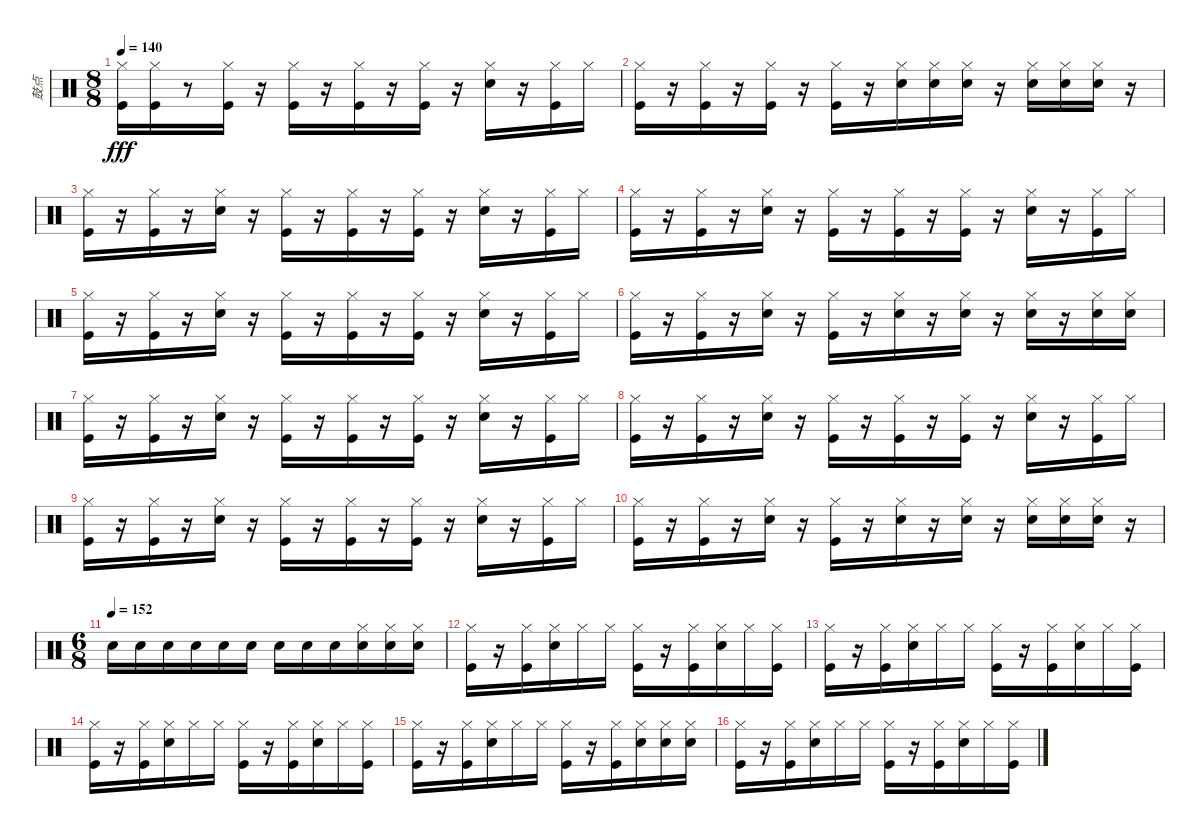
\track ("鼓点" "鼓点") {instrument percussion}
\staff {score}
\articulation defaults
\ts (8 8)
\tempo 140
\clef neutral
\ks c
("Kick (hit)" "Hi-Hat (closed)").16{dy fff} ("Kick (hit)" "Hi-Hat (closed)").16 r.8 ("Kick (hit)" "Hi-Hat (closed)").16 r.16 ("Kick (hit)" "Hi-Hat (closed)").16 r.16 ("Kick (hit)" "Hi-Hat (closed)").16 r.16 ("Kick (hit)" "Hi-Hat (closed)").16 r.16 ("Snare (hit) 2" "Hi-Hat (closed)").16 r.16 ("Kick (hit)" "Hi-Hat (closed)").16 "Hi-Hat (closed)".16 |
("Kick (hit)" "Hi-Hat (closed)").16 r.16 ("Kick (hit)" "Hi-Hat (closed)").16 r.16 ("Kick (hit)" "Hi-Hat (closed)").16 r.16 ("Kick (hit)" "Hi-Hat (closed)").16 r.16 ("Snare (hit) 2" "Hi-Hat (closed)").16 ("Snare (hit) 2" "Hi-Hat (closed)").16 ("Snare (hit) 2" "Hi-Hat (closed)").16 r.16 ("Snare (hit) 2" "Hi-Hat (closed)").16 ("Snare (hit) 2" "Hi-Hat (closed)").16 ("Snare (hit) 2" "Hi-Hat (closed)").16 r.16 |
("Kick (hit)" "Hi-Hat (closed)").16 r.16 ("Kick (hit)" "Hi-Hat (closed)").16 r.16 ("Snare (hit) 2" "Hi-Hat (closed)").16 r.16 ("Kick (hit)" "Hi-Hat (closed)").16 r.16 ("Kick (hit)" "Hi-Hat (closed)").16 r.16 ("Kick (hit)" "Hi-Hat (closed)").16 r.16 ("Snare (hit) 2" "Hi-Hat (closed)").16 r.16 ("Kick (hit)" "Hi-Hat (closed)").16 "Hi-Hat (closed)".16 |
("Kick (hit)" "Hi-Hat (closed)").16 r.16 ("Kick (hit)" "Hi-Hat (closed)").16 r.16 ("Snare (hit) 2" "Hi-Hat (closed)").16 r.16 ("Kick (hit)" "Hi-Hat (closed)").16 r.16 ("Kick (hit)" "Hi-Hat (closed)").16 r.16 ("Kick (hit)" "Hi-Hat (closed)").16 r.16 ("Snare (hit) 2" "Hi-Hat (closed)").16 r.16 ("Kick (hit)" "Hi-Hat (closed)").16 "Hi-Hat (closed)".16 |
("Kick (hit)" "Hi-Hat (closed)").16 r.16 ("Kick (hit)" "Hi-Hat (closed)").16 r.16 ("Snare (hit) 2" "Hi-Hat (closed)").16 r.16 ("Kick (hit)" "Hi-Hat (closed)").16 r.16 ("Kick (hit)" "Hi-Hat (closed)").16 r.16 ("Kick (hit)" "Hi-Hat (closed)").16 r.16 ("Snare (hit) 2" "Hi-Hat (closed)").16 r.16 ("Kick (hit)" "Hi-Hat (closed)").16 "Hi-Hat (closed)".16 |
("Kick (hit)" "Hi-Hat (closed)").16 r.16 ("Kick (hit)" "Hi-Hat (closed)").16 r.16 ("Snare (hit) 2" "Hi-Hat (closed)").16 r.16 ("Kick (hit)" "Hi-Hat (closed)").16 r.16 ("Snare (hit) 2" "Hi-Hat (closed)").16 r.16 ("Snare (hit) 2" "Hi-Hat (closed)").16 r.16 ("Snare (hit) 2" "Hi-Hat (closed)").16 r.16 ("Snare (hit) 2" "Hi-Hat (closed)").16 ("Snare (hit) 2" "Hi-Hat (closed)").16 |
("Kick (hit)" "Hi-Hat (closed)").16 r.16 ("Kick (hit)" "Hi-Hat (closed)").16 r.16 ("Snare (hit) 2" "Hi-Hat (closed)").16 r.16 ("Kick (hit)" "Hi-Hat (closed)").16 r.16 ("Kick (hit)" "Hi-Hat (closed)").16 r.16 ("Kick (hit)" "Hi-Hat (closed)").16 r.16 ("Snare (hit) 2" "Hi-Hat (closed)").16 r.16 ("Kick (hit)" "Hi-Hat (closed)").16 "Hi-Hat (closed)".16 |
("Kick (hit)" "Hi-Hat (closed)").16 r.16 ("Kick (hit)" "Hi-Hat (closed)").16 r.16 ("Snare (hit) 2" "Hi-Hat (closed)").16 r.16 ("Kick (hit)" "Hi-Hat (closed)").16 r.16 ("Kick (hit)" "Hi-Hat (closed)").16 r.16 ("Kick (hit)" "Hi-Hat (closed)").16 r.16 ("Snare (hit) 2" "Hi-Hat (closed)").16 r.16 ("Kick (hit)" "Hi-Hat (closed)").16 "Hi-Hat (closed)".16 |
("Kick (hit)" "Hi-Hat (closed)").16 r.16 ("Kick (hit)" "Hi-Hat (closed)").16 r.16 ("Snare (hit) 2" "Hi-Hat (closed)").16 r.16 ("Kick (hit)" "Hi-Hat (closed)").16 r.16 ("Kick (hit)" "Hi-Hat (closed)").16 r.16 ("Kick (hit)" "Hi-Hat (closed)").16 r.16 ("Snare (hit) 2" "Hi-Hat (closed)").16 r.16 ("Kick (hit)" "Hi-Hat (closed)").16 "Hi-Hat (closed)".16 |
("Kick (hit)" "Hi-Hat (closed)").16 r.16 ("Kick (hit)" "Hi-Hat (closed)").16 r.16 ("Snare (hit) 2" "Hi-Hat (closed)").16 r.16 ("Kick (hit)" "Hi-Hat (closed)").16 r.16 ("Snare (hit) 2" "Hi-Hat (closed)").16 r.16 ("Snare (hit) 2" "Hi-Hat (closed)").16 r.16 ("Snare (hit) 2" "Hi-Hat (closed)").16 ("Snare (hit) 2" "Hi-Hat (closed)").16 ("Snare (hit) 2" "Hi-Hat (closed)").16 r.16 |
\ts (6 8)
\tempo (152)
"Snare (hit) 2".16 "Snare (hit) 2".16 "Snare (hit) 2".16 "Snare (hit) 2".16 "Snare (hit) 2".16 "Snare (hit) 2".16 "Snare (hit) 2".16 "Snare (hit) 2".16 "Snare (hit) 2".16 ("Snare (hit) 2" "Hi-Hat (closed)").16 ("Snare (hit) 2" "Hi-Hat (closed)").16 ("Snare (hit) 2" "Hi-Hat (closed)").16 |
("Kick (hit)" "Hi-Hat (closed)").16 r.16 ("Kick (hit)" "Hi-Hat (closed)").16 ("Snare (hit) 2" "Hi-Hat (closed)").16 "Hi-Hat (closed)".16 "Hi-Hat (closed)".16 ("Kick (hit)" "Hi-Hat (closed)").16 r.16 ("Kick (hit)" "Hi-Hat (closed)").16 ("Snare (hit) 2" "Hi-Hat (closed)").16 "Hi-Hat (closed)".16 ("Kick (hit)" "Hi-Hat (closed)").16 |
("Kick (hit)" "Hi-Hat (closed)").16 r.16 ("Kick (hit)" "Hi-Hat (closed)").16 ("Snare (hit) 2" "Hi-Hat (closed)").16 "Hi-Hat (closed)".16 "Hi-Hat (closed)".16 ("Kick (hit)" "Hi-Hat (closed)").16 r.16 ("Kick (hit)" "Hi-Hat (closed)").16 ("Snare (hit) 2" "Hi-Hat (closed)").16 "Hi-Hat (closed)".16 ("Kick (hit)" "Hi-Hat (closed)").16 |
("Kick (hit)" "Hi-Hat (closed)").16 r.16 ("Kick (hit)" "Hi-Hat (closed)").16 ("Snare (hit) 2" "Hi-Hat (closed)").16 "Hi-Hat (closed)".16 "Hi-Hat (closed)".16 ("Kick (hit)" "Hi-Hat (closed)").16 r.16 ("Kick (hit)" "Hi-Hat (closed)").16 ("Snare (hit) 2" "Hi-Hat (closed)").16 "Hi-Hat (closed)".16 ("Kick (hit)" "Hi-Hat (closed)").16 |
("Kick (hit)" "Hi-Hat (closed)").16 r.16 ("Kick (hit)" "Hi-Hat (closed)").16 ("Snare (hit) 2" "Hi-Hat (closed)").16 "Hi-Hat (closed)".16 "Hi-Hat (closed)".16 ("Kick (hit)" "Hi-Hat (closed)").16 r.16 ("Kick (hit)" "Hi-Hat (closed)").16 ("Snare (hit) 2" "Hi-Hat (closed)").16 ("Snare (hit) 2" "Hi-Hat (closed)").16 ("Snare (hit) 2" "Hi-Hat (closed)").16 |
("Kick (hit)" "Hi-Hat (closed)").16 r.16 ("Kick (hit)" "Hi-Hat (closed)").16 ("Snare (hit) 2" "Hi-Hat (closed)").16 "Hi-Hat (closed)".16 "Hi-Hat (closed)".16 ("Kick (hit)" "Hi-Hat (closed)").16 r.16 ("Kick (hit)" "Hi-Hat (closed)").16 ("Snare (hit) 2" "Hi-Hat (closed)").16 "Hi-Hat (closed)".16 ("Kick (hit)" "Hi-Hat (closed)").16
